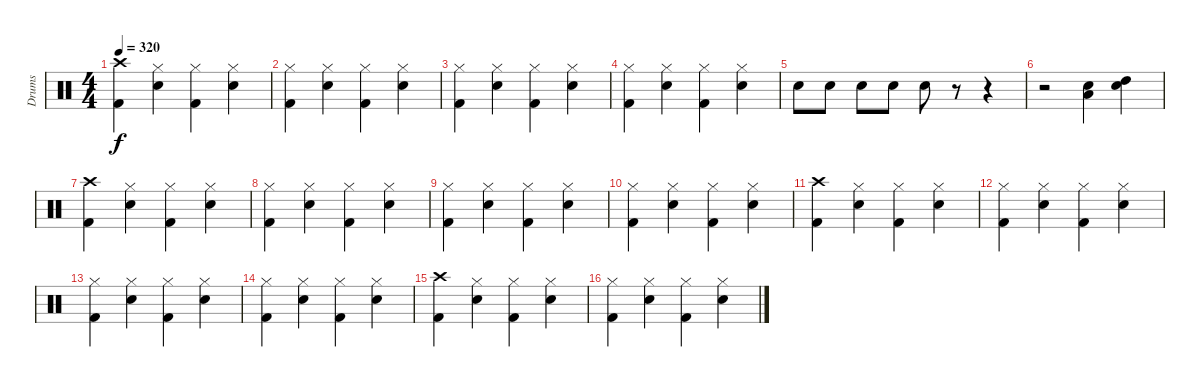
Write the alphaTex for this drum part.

\track ("Drums" "Drums") {instrument percussion}
\staff {score}
\articulation defaults
\ts (4 4)
\tempo 320
\clef neutral
\ks c
("Crash high (hit)" "Kick (hit) 2").4{dy f} ("Hi-Hat (closed)" "Snare (hit) 2").4 ("Hi-Hat (closed)" "Kick (hit) 2").4 ("Hi-Hat (closed)" "Snare (hit) 2").4 |
("Hi-Hat (closed)" "Kick (hit) 2").4 ("Hi-Hat (closed)" "Snare (hit) 2").4 ("Hi-Hat (closed)" "Kick (hit) 2").4 ("Hi-Hat (closed)" "Snare (hit) 2").4 |
("Hi-Hat (closed)" "Kick (hit) 2").4 ("Hi-Hat (closed)" "Snare (hit) 2").4 ("Hi-Hat (closed)" "Kick (hit) 2").4 ("Hi-Hat (closed)" "Snare (hit) 2").4 |
("Hi-Hat (closed)" "Kick (hit) 2").4 ("Hi-Hat (closed)" "Snare (hit) 2").4 ("Hi-Hat (closed)" "Kick (hit) 2").4 ("Hi-Hat (closed)" "Snare (hit) 2").4 |
"Snare (hit) 2".8 "Snare (hit) 2".8 "Snare (hit) 2".8 "Snare (hit) 2".8 "Snare (hit) 2".8 r.8 r.4 |
r.2 ("Snare (hit) 2" "Low Floor Tom (hit)").4 ("Snare (hit) 2" "High Tom (hit)").4 |
("Crash high (hit)" "Kick (hit) 2").4 ("Hi-Hat (closed)" "Snare (hit) 2").4 ("Hi-Hat (closed)" "Kick (hit) 2").4 ("Hi-Hat (closed)" "Snare (hit) 2").4 |
("Hi-Hat (closed)" "Kick (hit) 2").4 ("Hi-Hat (closed)" "Snare (hit) 2").4 ("Hi-Hat (closed)" "Kick (hit) 2").4 ("Hi-Hat (closed)" "Snare (hit) 2").4 |
("Hi-Hat (closed)" "Kick (hit) 2").4 ("Hi-Hat (closed)" "Snare (hit) 2").4 ("Hi-Hat (closed)" "Kick (hit) 2").4 ("Hi-Hat (closed)" "Snare (hit) 2").4 |
("Hi-Hat (closed)" "Kick (hit) 2").4 ("Hi-Hat (closed)" "Snare (hit) 2").4 ("Hi-Hat (closed)" "Kick (hit) 2").4 ("Hi-Hat (closed)" "Snare (hit) 2").4 |
("Crash high (hit)" "Kick (hit) 2").4 ("Hi-Hat (closed)" "Snare (hit) 2").4 ("Hi-Hat (closed)" "Kick (hit) 2").4 ("Hi-Hat (closed)" "Snare (hit) 2").4 |
("Hi-Hat (closed)" "Kick (hit) 2").4 ("Hi-Hat (closed)" "Snare (hit) 2").4 ("Hi-Hat (closed)" "Kick (hit) 2").4 ("Hi-Hat (closed)" "Snare (hit) 2").4 |
("Hi-Hat (closed)" "Kick (hit) 2").4 ("Hi-Hat (closed)" "Snare (hit) 2").4 ("Hi-Hat (closed)" "Kick (hit) 2").4 ("Hi-Hat (closed)" "Snare (hit) 2").4 |
("Hi-Hat (closed)" "Kick (hit) 2").4 ("Hi-Hat (closed)" "Snare (hit) 2").4 ("Hi-Hat (closed)" "Kick (hit) 2").4 ("Hi-Hat (closed)" "Snare (hit) 2").4 |
("Crash high (hit)" "Kick (hit) 2").4 ("Hi-Hat (closed)" "Snare (hit) 2").4 ("Hi-Hat (closed)" "Kick (hit) 2").4 ("Hi-Hat (closed)" "Snare (hit) 2").4 |
("Hi-Hat (closed)" "Kick (hit) 2").4 ("Hi-Hat (closed)" "Snare (hit) 2").4 ("Hi-Hat (closed)" "Kick (hit) 2").4 ("Hi-Hat (closed)" "Snare (hit) 2").4
